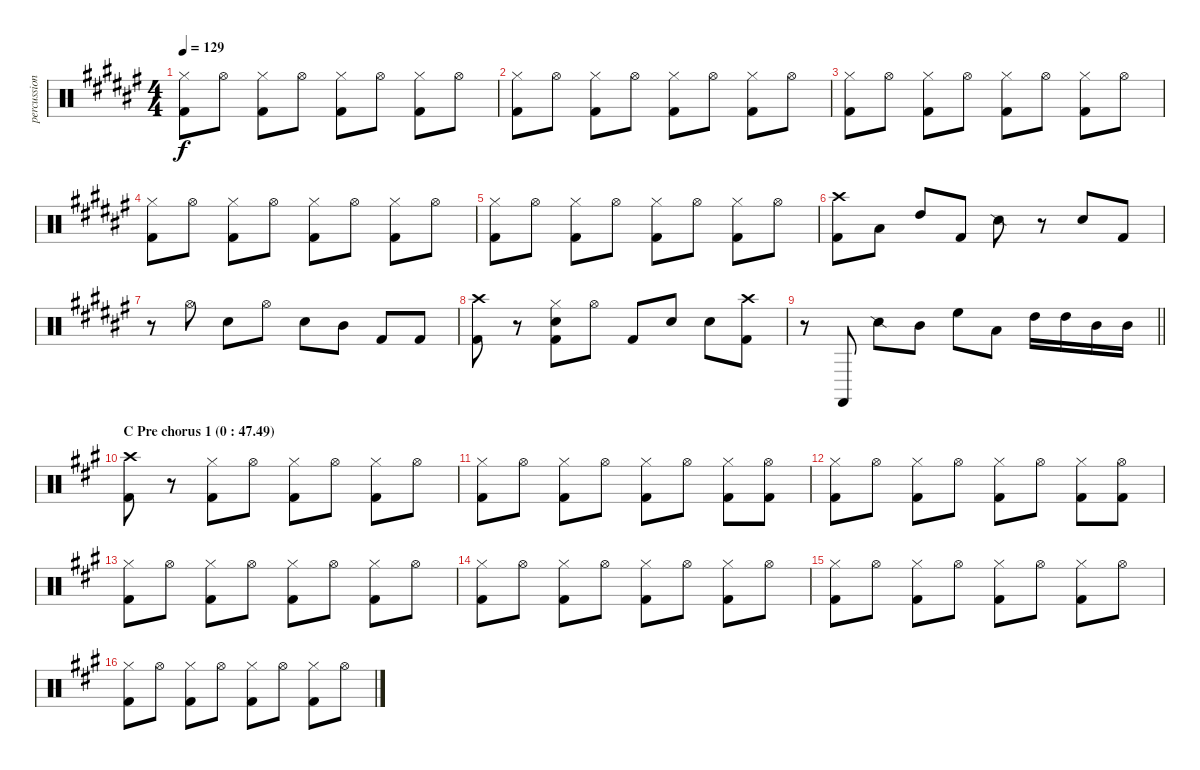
\track ("percussion" "percussion") {instrument percussion}
\staff {score}
\articulation defaults
\ts (4 4)
\tempo 129
\clef neutral
\ks f#
("Hi-Hat (closed)" "Kick (hit) 2").8{dy f} "Hi-Hat (open)".8 ("Hi-Hat (closed)" "Kick (hit) 2").8 "Hi-Hat (open)".8 ("Hi-Hat (closed)" "Kick (hit) 2").8 "Hi-Hat (open)".8 ("Hi-Hat (closed)" "Kick (hit) 2").8 "Hi-Hat (open)".8 |
("Hi-Hat (closed)" "Kick (hit) 2").8 "Hi-Hat (open)".8 ("Hi-Hat (closed)" "Kick (hit) 2").8 "Hi-Hat (open)".8 ("Hi-Hat (closed)" "Kick (hit) 2").8 "Hi-Hat (open)".8 ("Hi-Hat (closed)" "Kick (hit) 2").8 "Hi-Hat (open)".8 |
("Hi-Hat (closed)" "Kick (hit) 2").8 "Hi-Hat (open)".8 ("Hi-Hat (closed)" "Kick (hit) 2").8 "Hi-Hat (open)".8 ("Hi-Hat (closed)" "Kick (hit) 2").8 "Hi-Hat (open)".8 ("Hi-Hat (closed)" "Kick (hit) 2").8 "Hi-Hat (open)".8 |
("Hi-Hat (closed)" "Kick (hit) 2").8 "Hi-Hat (open)".8 ("Hi-Hat (closed)" "Kick (hit) 2").8 "Hi-Hat (open)".8 ("Hi-Hat (closed)" "Kick (hit) 2").8 "Hi-Hat (open)".8 ("Hi-Hat (closed)" "Kick (hit) 2").8 "Hi-Hat (open)".8 |
("Hi-Hat (closed)" "Kick (hit) 2").8 "Hi-Hat (open)".8 ("Hi-Hat (closed)" "Kick (hit) 2").8 "Hi-Hat (open)".8 ("Hi-Hat (closed)" "Kick (hit) 2").8 "Hi-Hat (open)".8 ("Hi-Hat (closed)" "Kick (hit) 2").8 "Hi-Hat (open)".8 |
("Crash high (hit)" "Kick (hit) 2").8 "Low Tom (hit)".8 "High Tom (hit)".8 "Kick (hit) 2".8 "Snare (side stick) 2".8 r.8 "Snare (hit) 2".8 "Kick (hit) 2".8 |
r.8 "Hi-Hat (open)".8 "Snare (hit) 2".8 "Hi-Hat (open)".8 "Snare (hit) 2".8 "Mid Tom (hit)".8 "Kick (hit) 2".8 "Kick (hit) 2".8 |
("Crash high (hit)" "Kick (hit) 2").8 r.8 ("Snare (hit) 2" "Hi-Hat (closed)" "Kick (hit) 2").8 "Hi-Hat (open)".8 "Kick (hit) 2".8 "Snare (hit) 2".8 "Snare (hit) 2".8 ("Crash high (hit)" "Kick (hit) 2").8 |
\barLineRight lightlight
r.8 "Castanets (hit)".8 "Snare (side stick) 2".8 "Mid Tom (hit)".8 "High Floor Tom (hit)".8 "Low Tom (hit)".8 "High Tom (hit)".16 "High Tom (hit)".16 "Mid Tom (hit)".16 "Mid Tom (hit)".16 |
\section ("" "C Pre chorus 1 (0 : 47.49)")
\ks a
("Crash high (hit)" "Kick (hit) 2").8 r.8 ("Hi-Hat (closed)" "Kick (hit) 2").8 "Hi-Hat (open)".8 ("Hi-Hat (closed)" "Kick (hit) 2").8 "Hi-Hat (open)".8 ("Hi-Hat (closed)" "Kick (hit) 2").8 "Hi-Hat (open)".8 |
("Hi-Hat (closed)" "Kick (hit) 2").8 "Hi-Hat (open)".8 ("Hi-Hat (closed)" "Kick (hit) 2").8 "Hi-Hat (open)".8 ("Hi-Hat (closed)" "Kick (hit) 2").8 "Hi-Hat (open)".8 ("Hi-Hat (closed)" "Kick (hit) 2").8 ("Hi-Hat (open)" "Kick (hit) 2").8 |
("Hi-Hat (closed)" "Kick (hit) 2").8 "Hi-Hat (open)".8 ("Hi-Hat (closed)" "Kick (hit) 2").8 "Hi-Hat (open)".8 ("Hi-Hat (closed)" "Kick (hit) 2").8 "Hi-Hat (open)".8 ("Hi-Hat (closed)" "Kick (hit) 2").8 ("Hi-Hat (open)" "Kick (hit) 2").8 |
("Hi-Hat (closed)" "Kick (hit) 2").8 "Hi-Hat (open)".8 ("Hi-Hat (closed)" "Kick (hit) 2").8 "Hi-Hat (open)".8 ("Hi-Hat (closed)" "Kick (hit) 2").8 "Hi-Hat (open)".8 ("Hi-Hat (closed)" "Kick (hit) 2").8 "Hi-Hat (open)".8 |
("Hi-Hat (closed)" "Kick (hit) 2").8 "Hi-Hat (open)".8 ("Hi-Hat (closed)" "Kick (hit) 2").8 "Hi-Hat (open)".8 ("Hi-Hat (closed)" "Kick (hit) 2").8 "Hi-Hat (open)".8 ("Hi-Hat (closed)" "Kick (hit) 2").8 "Hi-Hat (open)".8 |
("Hi-Hat (closed)" "Kick (hit) 2").8 "Hi-Hat (open)".8 ("Hi-Hat (closed)" "Kick (hit) 2").8 "Hi-Hat (open)".8 ("Hi-Hat (closed)" "Kick (hit) 2").8 "Hi-Hat (open)".8 ("Hi-Hat (closed)" "Kick (hit) 2").8 "Hi-Hat (open)".8 |
("Hi-Hat (closed)" "Kick (hit) 2").8 "Hi-Hat (open)".8 ("Hi-Hat (closed)" "Kick (hit) 2").8 "Hi-Hat (open)".8 ("Hi-Hat (closed)" "Kick (hit) 2").8 "Hi-Hat (open)".8 ("Hi-Hat (closed)" "Kick (hit) 2").8 "Hi-Hat (open)".8
